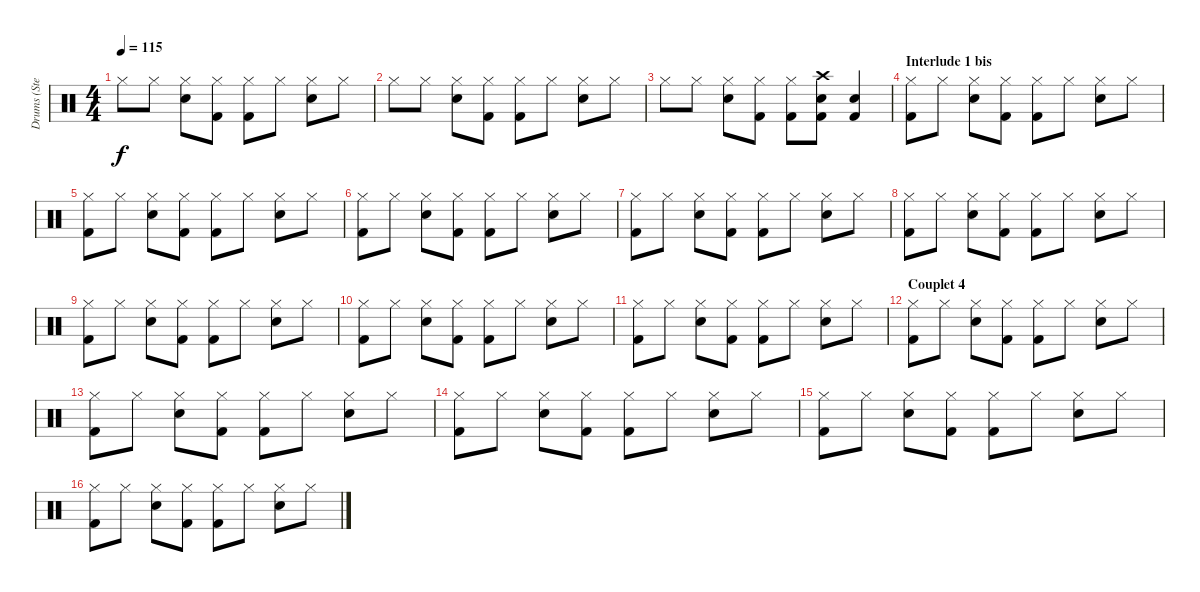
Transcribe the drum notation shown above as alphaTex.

\track ("Drums (Stewart)           " "Drums (Ste") {instrument percussion}
\staff {score}
\articulation defaults
\ts (4 4)
\tempo 115
\clef neutral
\ks c "Hi-Hat (closed)".8{dy f} "Hi-Hat (closed)".8
("Hi-Hat (closed)" "Snare (hit) 2").8 ("Hi-Hat (closed)" "Kick (hit) 2").8 ("Hi-Hat (closed)" "Kick (hit) 2").8 "Hi-Hat (closed)".8 ("Hi-Hat (closed)" "Snare (hit) 2").8 "Hi-Hat (closed)".8 |
"Hi-Hat (closed)".8 "Hi-Hat (closed)".8 ("Hi-Hat (closed)" "Snare (hit) 2").8 ("Hi-Hat (closed)" "Kick (hit) 2").8 ("Hi-Hat (closed)" "Kick (hit) 2").8 "Hi-Hat (closed)".8 ("Hi-Hat (closed)" "Snare (hit) 2").8 "Hi-Hat (closed)".8 |
"Hi-Hat (closed)".8 "Hi-Hat (closed)".8 ("Hi-Hat (closed)" "Snare (hit) 2").8 ("Hi-Hat (closed)" "Kick (hit) 2").8 ("Hi-Hat (closed)" "Kick (hit) 2").8 ("Crash high (hit)" "Kick (hit) 2" "Snare (hit) 2").8 ("Kick (hit) 2" "Snare (hit) 2").4 |
\section ("" "Interlude 1 bis")
("Hi-Hat (closed)" "Kick (hit) 2").8 "Hi-Hat (closed)".8 ("Hi-Hat (closed)" "Snare (hit) 2").8 ("Hi-Hat (closed)" "Kick (hit) 2").8 ("Hi-Hat (closed)" "Kick (hit) 2").8 "Hi-Hat (closed)".8 ("Hi-Hat (closed)" "Snare (hit) 2").8 "Hi-Hat (closed)".8 |
("Hi-Hat (closed)" "Kick (hit) 2").8 "Hi-Hat (closed)".8 ("Hi-Hat (closed)" "Snare (hit) 2").8 ("Hi-Hat (closed)" "Kick (hit) 2").8 ("Hi-Hat (closed)" "Kick (hit) 2").8 "Hi-Hat (closed)".8 ("Hi-Hat (closed)" "Snare (hit) 2").8 "Hi-Hat (closed)".8 |
("Hi-Hat (closed)" "Kick (hit) 2").8 "Hi-Hat (closed)".8 ("Hi-Hat (closed)" "Snare (hit) 2").8 ("Hi-Hat (closed)" "Kick (hit) 2").8 ("Hi-Hat (closed)" "Kick (hit) 2").8 "Hi-Hat (closed)".8 ("Hi-Hat (closed)" "Snare (hit) 2").8 "Hi-Hat (closed)".8 |
("Hi-Hat (closed)" "Kick (hit) 2").8 "Hi-Hat (closed)".8 ("Hi-Hat (closed)" "Snare (hit) 2").8 ("Hi-Hat (closed)" "Kick (hit) 2").8 ("Hi-Hat (closed)" "Kick (hit) 2").8 "Hi-Hat (closed)".8 ("Hi-Hat (closed)" "Snare (hit) 2").8 "Hi-Hat (closed)".8 |
("Hi-Hat (closed)" "Kick (hit) 2").8 "Hi-Hat (closed)".8 ("Hi-Hat (closed)" "Snare (hit) 2").8 ("Hi-Hat (closed)" "Kick (hit) 2").8 ("Hi-Hat (closed)" "Kick (hit) 2").8 "Hi-Hat (closed)".8 ("Hi-Hat (closed)" "Snare (hit) 2").8 "Hi-Hat (closed)".8 |
("Hi-Hat (closed)" "Kick (hit) 2").8 "Hi-Hat (closed)".8 ("Hi-Hat (closed)" "Snare (hit) 2").8 ("Hi-Hat (closed)" "Kick (hit) 2").8 ("Hi-Hat (closed)" "Kick (hit) 2").8 "Hi-Hat (closed)".8 ("Hi-Hat (closed)" "Snare (hit) 2").8 "Hi-Hat (closed)".8 |
("Hi-Hat (closed)" "Kick (hit) 2").8 "Hi-Hat (closed)".8 ("Hi-Hat (closed)" "Snare (hit) 2").8 ("Hi-Hat (closed)" "Kick (hit) 2").8 ("Hi-Hat (closed)" "Kick (hit) 2").8 "Hi-Hat (closed)".8 ("Hi-Hat (closed)" "Snare (hit) 2").8 "Hi-Hat (closed)".8 |
("Hi-Hat (closed)" "Kick (hit) 2").8 "Hi-Hat (closed)".8 ("Hi-Hat (closed)" "Snare (hit) 2").8 ("Hi-Hat (closed)" "Kick (hit) 2").8 ("Hi-Hat (closed)" "Kick (hit) 2").8 "Hi-Hat (closed)".8 ("Hi-Hat (closed)" "Snare (hit) 2").8 "Hi-Hat (closed)".8 |
\section ("" "Couplet 4")
("Hi-Hat (closed)" "Kick (hit) 2").8 "Hi-Hat (closed)".8 ("Hi-Hat (closed)" "Snare (hit) 2").8 ("Hi-Hat (closed)" "Kick (hit) 2").8 ("Hi-Hat (closed)" "Kick (hit) 2").8 "Hi-Hat (closed)".8 ("Hi-Hat (closed)" "Snare (hit) 2").8 "Hi-Hat (closed)".8 |
("Hi-Hat (closed)" "Kick (hit) 2").8 "Hi-Hat (closed)".8 ("Hi-Hat (closed)" "Snare (hit) 2").8 ("Hi-Hat (closed)" "Kick (hit) 2").8 ("Hi-Hat (closed)" "Kick (hit) 2").8 "Hi-Hat (closed)".8 ("Hi-Hat (closed)" "Snare (hit) 2").8 "Hi-Hat (closed)".8 |
("Hi-Hat (closed)" "Kick (hit) 2").8 "Hi-Hat (closed)".8 ("Hi-Hat (closed)" "Snare (hit) 2").8 ("Hi-Hat (closed)" "Kick (hit) 2").8 ("Hi-Hat (closed)" "Kick (hit) 2").8 "Hi-Hat (closed)".8 ("Hi-Hat (closed)" "Snare (hit) 2").8 "Hi-Hat (closed)".8 |
("Hi-Hat (closed)" "Kick (hit) 2").8 "Hi-Hat (closed)".8 ("Hi-Hat (closed)" "Snare (hit) 2").8 ("Hi-Hat (closed)" "Kick (hit) 2").8 ("Hi-Hat (closed)" "Kick (hit) 2").8 "Hi-Hat (closed)".8 ("Hi-Hat (closed)" "Snare (hit) 2").8 "Hi-Hat (closed)".8 |
("Hi-Hat (closed)" "Kick (hit) 2").8 "Hi-Hat (closed)".8 ("Hi-Hat (closed)" "Snare (hit) 2").8 ("Hi-Hat (closed)" "Kick (hit) 2").8 ("Hi-Hat (closed)" "Kick (hit) 2").8 "Hi-Hat (closed)".8 ("Hi-Hat (closed)" "Snare (hit) 2").8 "Hi-Hat (closed)".8
